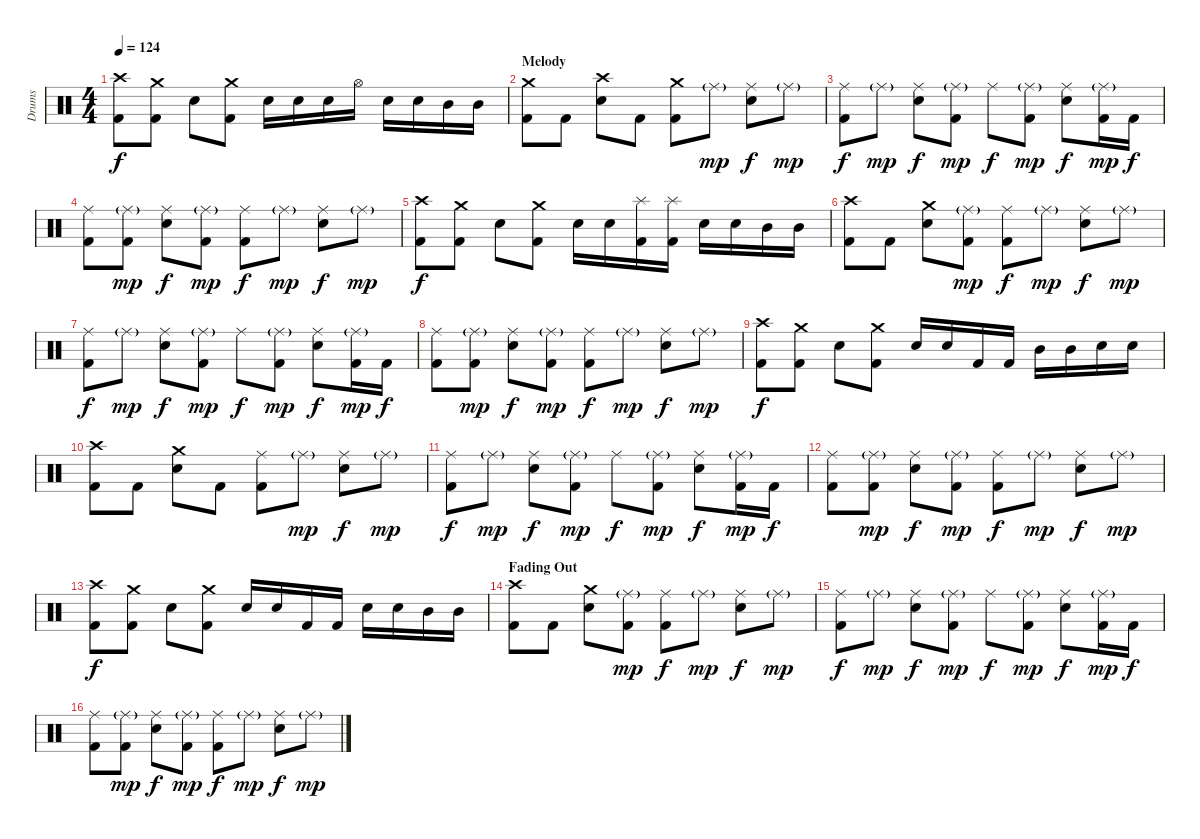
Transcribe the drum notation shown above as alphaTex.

\track ("Drums" "Drums") {instrument percussion}
\staff {score}
\articulation defaults
\ts (4 4)
\tempo 124
\clef neutral
\ks c
("Crash high (hit)" "Kick (hit) 2").8{dy f} ("Crash medium (hit)" "Kick (hit) 2").8 "Snare (hit) 2".8 ("Crash medium (hit)" "Kick (hit) 2").8 "Snare (hit) 2".16 "Snare (hit) 2".16 "Snare (hit) 2".16 "Hi-Hat (open)".16 "Snare (hit) 2".16 "Snare (hit) 2".16 "Mid Tom (hit)".16 "Mid Tom (hit)".16 |
\section ("" "Melody")
("Crash medium (hit)" "Kick (hit) 2").8 "Kick (hit) 2".8 ("Crash high (hit)" "Snare (hit) 2").8 "Kick (hit) 2".8 ("Crash medium (hit)" "Kick (hit) 2").8 "Ride (middle)"{g}.8{dy mp} ("Ride (middle)" "Snare (hit) 2").8{dy f} "Ride (middle)"{g}.8{dy mp} |
("Ride (middle)" "Kick (hit) 2").8{dy f} "Ride (middle)"{g}.8{dy mp} ("Ride (middle)" "Snare (hit) 2").8{dy f} ("Ride (middle)"{g} "Kick (hit) 2").8{dy mp} "Ride (middle)".8{dy f} ("Ride (middle)"{g} "Kick (hit) 2").8{dy mp} ("Ride (middle)" "Snare (hit) 2").8{dy f} ("Ride (middle)"{g} "Kick (hit) 2").16{dy mp} "Kick (hit) 2".16{dy f} |
("Ride (middle)" "Kick (hit) 2").8 ("Ride (middle)"{g} "Kick (hit) 2").8{dy mp} ("Ride (middle)" "Snare (hit) 2").8{dy f} ("Ride (middle)"{g} "Kick (hit) 2").8{dy mp} ("Ride (middle)" "Kick (hit) 2").8{dy f} "Ride (middle)"{g}.8{dy mp} ("Ride (middle)" "Snare (hit) 2").8{dy f} "Ride (middle)"{g}.8{dy mp} |
("Crash high (hit)" "Kick (hit) 2").8{dy f} ("Crash medium (hit)" "Kick (hit) 2").8 "Snare (hit) 2".8 ("Crash medium (hit)" "Kick (hit) 2").8 "Snare (hit) 2".16 "Snare (hit) 2".16 ("Splash (hit)" "Kick (hit) 2").16 ("Splash (hit)" "Kick (hit) 2").16 "Snare (hit) 2".16 "Snare (hit) 2".16 "Mid Tom (hit)".16 "Mid Tom (hit)".16 |
("Crash high (hit)" "Kick (hit) 2").8 "Kick (hit) 2".8 ("Crash medium (hit)" "Snare (hit) 2").8 ("Ride (middle)"{g} "Kick (hit) 2").8{dy mp} ("Ride (middle)" "Kick (hit) 2").8{dy f} "Ride (middle)"{g}.8{dy mp} ("Ride (middle)" "Snare (hit) 2").8{dy f} "Ride (middle)"{g}.8{dy mp} |
("Ride (middle)" "Kick (hit) 2").8{dy f} "Ride (middle)"{g}.8{dy mp} ("Ride (middle)" "Snare (hit) 2").8{dy f} ("Ride (middle)"{g} "Kick (hit) 2").8{dy mp} "Ride (middle)".8{dy f} ("Ride (middle)"{g} "Kick (hit) 2").8{dy mp} ("Ride (middle)" "Snare (hit) 2").8{dy f} ("Ride (middle)"{g} "Kick (hit) 2").16{dy mp} "Kick (hit) 2".16{dy f} |
("Ride (middle)" "Kick (hit) 2").8 ("Ride (middle)"{g} "Kick (hit) 2").8{dy mp} ("Ride (middle)" "Snare (hit) 2").8{dy f} ("Ride (middle)"{g} "Kick (hit) 2").8{dy mp} ("Ride (middle)" "Kick (hit) 2").8{dy f} "Ride (middle)"{g}.8{dy mp} ("Ride (middle)" "Snare (hit) 2").8{dy f} "Ride (middle)"{g}.8{dy mp} |
("Crash high (hit)" "Kick (hit) 2").8{dy f} ("Crash medium (hit)" "Kick (hit) 2").8 "Snare (hit) 2".8 ("Crash medium (hit)" "Kick (hit) 2").8 "Snare (hit) 2".16 "Snare (hit) 2".16 "Kick (hit) 2".16 "Kick (hit) 2".16 "Mid Tom (hit)".16 "Mid Tom (hit)".16 "Snare (hit) 2".16 "Snare (hit) 2".16 |
("Crash high (hit)" "Kick (hit) 2").8 "Kick (hit) 2".8 ("Crash medium (hit)" "Snare (hit) 2").8 "Kick (hit) 2".8 ("Ride (middle)" "Kick (hit) 2").8 "Ride (middle)"{g}.8{dy mp} ("Ride (middle)" "Snare (hit) 2").8{dy f} "Ride (middle)"{g}.8{dy mp} |
("Ride (middle)" "Kick (hit) 2").8{dy f} "Ride (middle)"{g}.8{dy mp} ("Ride (middle)" "Snare (hit) 2").8{dy f} ("Ride (middle)"{g} "Kick (hit) 2").8{dy mp} "Ride (middle)".8{dy f} ("Ride (middle)"{g} "Kick (hit) 2").8{dy mp} ("Ride (middle)" "Snare (hit) 2").8{dy f} ("Ride (middle)"{g} "Kick (hit) 2").16{dy mp} "Kick (hit) 2".16{dy f} |
("Ride (middle)" "Kick (hit) 2").8 ("Ride (middle)"{g} "Kick (hit) 2").8{dy mp} ("Ride (middle)" "Snare (hit) 2").8{dy f} ("Ride (middle)"{g} "Kick (hit) 2").8{dy mp} ("Ride (middle)" "Kick (hit) 2").8{dy f} "Ride (middle)"{g}.8{dy mp} ("Ride (middle)" "Snare (hit) 2").8{dy f} "Ride (middle)"{g}.8{dy mp} |
("Crash high (hit)" "Kick (hit) 2").8{dy f} ("Crash medium (hit)" "Kick (hit) 2").8 "Snare (hit) 2".8 ("Crash medium (hit)" "Kick (hit) 2").8 "Snare (hit) 2".16 "Snare (hit) 2".16 "Kick (hit) 2".16 "Kick (hit) 2".16 "Snare (hit) 2".16 "Snare (hit) 2".16 "Mid Tom (hit)".16 "Mid Tom (hit)".16 |
\section ("" "Fading Out")
("Crash high (hit)" "Kick (hit) 2").8 "Kick (hit) 2".8 ("Crash medium (hit)" "Snare (hit) 2").8 ("Ride (middle)"{g} "Kick (hit) 2").8{dy mp} ("Ride (middle)" "Kick (hit) 2").8{dy f} "Ride (middle)"{g}.8{dy mp} ("Ride (middle)" "Snare (hit) 2").8{dy f} "Ride (middle)"{g}.8{dy mp} |
("Ride (middle)" "Kick (hit) 2").8{dy f} "Ride (middle)"{g}.8{dy mp} ("Ride (middle)" "Snare (hit) 2").8{dy f} ("Ride (middle)"{g} "Kick (hit) 2").8{dy mp} "Ride (middle)".8{dy f} ("Ride (middle)"{g} "Kick (hit) 2").8{dy mp} ("Ride (middle)" "Snare (hit) 2").8{dy f} ("Ride (middle)"{g} "Kick (hit) 2").16{dy mp} "Kick (hit) 2".16{dy f} |
("Ride (middle)" "Kick (hit) 2").8 ("Ride (middle)"{g} "Kick (hit) 2").8{dy mp} ("Ride (middle)" "Snare (hit) 2").8{dy f} ("Ride (middle)"{g} "Kick (hit) 2").8{dy mp} ("Ride (middle)" "Kick (hit) 2").8{dy f} "Ride (middle)"{g}.8{dy mp} ("Ride (middle)" "Snare (hit) 2").8{dy f} "Ride (middle)"{g}.8{dy mp}
